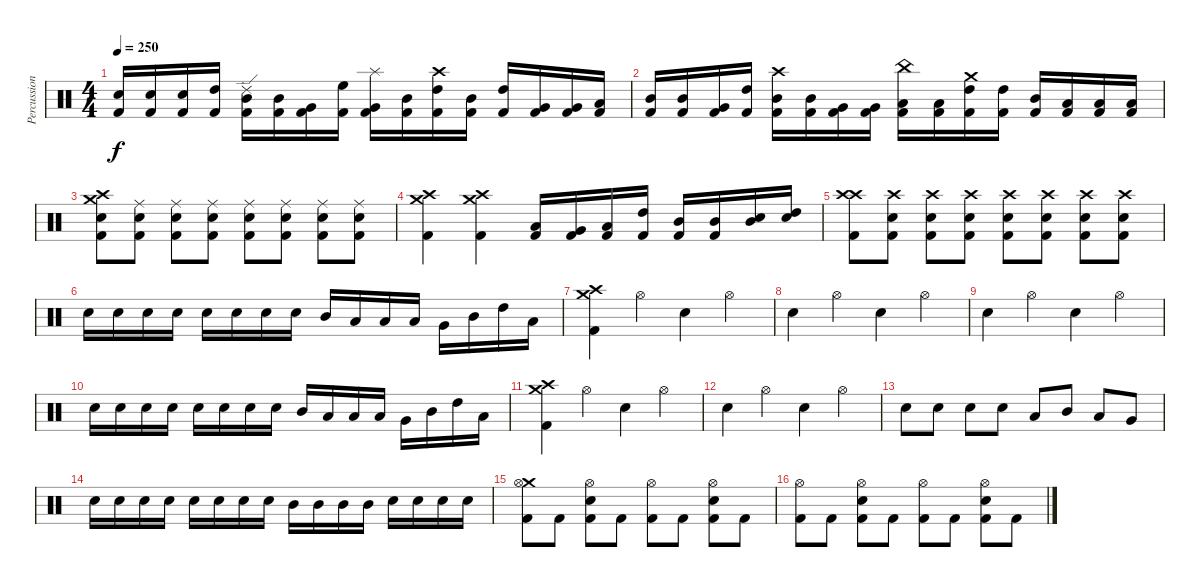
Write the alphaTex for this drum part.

\track ("Percussion" "Percussion") {instrument percussion}
\staff {score}
\articulation defaults
\ts (4 4)
\tempo 250
\clef neutral
\ks c
("Snare (hit) 2" "Kick (hit) 2").16{dy f} ("Snare (hit) 2" "Kick (hit) 2").16 ("Snare (hit) 2" "Kick (hit) 2").16 ("High Tom (hit)" "Kick (hit) 2").16 ("Ride (edge) 2" "Mid Tom (hit)" "Kick (hit) 2").16 ("Mid Tom (hit)" "Kick (hit) 2").16 ("Very Low Tom (hit)" "Kick (hit) 2").16 ("High Floor Tom (hit)" "Kick (hit) 2").16 ("Splash (hit)" "Very Low Tom (hit)" "Kick (hit) 2").16 ("Mid Tom (hit)" "Kick (hit) 2").16 ("Crash high (hit)" "High Tom (hit)" "Kick (hit) 2").16 ("Mid Tom (hit)" "Kick (hit) 2").16 ("High Tom (hit)" "Kick (hit) 2").16 ("Very Low Tom (hit)" "Kick (hit) 2").16 ("Very Low Tom (hit)" "Kick (hit) 2").16 ("Low Tom (hit)" "Kick (hit) 2").16 |
("Mid Tom (hit)" "Kick (hit) 2").16 ("Mid Tom (hit)" "Kick (hit) 2").16 ("Very Low Tom (hit)" "Kick (hit) 2").16 ("High Tom (hit)" "Kick (hit) 2").16 ("Crash high (hit)" "Mid Tom (hit)" "Kick (hit) 2").16 ("Mid Tom (hit)" "Kick (hit) 2").16 ("Very Low Tom (hit)" "Kick (hit) 2").16 ("Very Low Tom (hit)" "Kick (hit) 2").16 ("China (hit)" "Low Tom (hit)" "Kick (hit) 2").16 ("Low Tom (hit)" "Kick (hit) 2").16 ("Crash medium (hit)" "High Tom (hit)" "Kick (hit) 2").16 ("High Tom (hit)" "Kick (hit) 2").16 ("Mid Tom (hit)" "Kick (hit) 2").16 ("Low Tom (hit)" "Kick (hit) 2").16 ("Low Floor Tom (hit)" "Kick (hit) 2").16 ("Low Floor Tom (hit)" "Kick (hit) 2").16 |
("Crash high (hit)" "Crash medium (hit)" "Snare (hit) 2" "Kick (hit) 2").8 ("Ride (middle)" "Snare (hit) 2" "Kick (hit) 2").8 ("Ride (middle)" "Snare (hit) 2" "Kick (hit) 2").8 ("Ride (middle)" "Snare (hit) 2" "Kick (hit) 2").8 ("Ride (middle)" "Snare (hit) 2" "Kick (hit) 2").8 ("Ride (middle)" "Snare (hit) 2" "Kick (hit) 2").8 ("Ride (middle)" "Snare (hit) 2" "Kick (hit) 2").8 ("Ride (middle)" "Snare (hit) 2" "Kick (hit) 2").8 |
("Crash high (hit)" "Crash medium (hit)" "Kick (hit) 2").4 ("Crash high (hit)" "Crash medium (hit)" "Kick (hit) 2").4 ("Low Floor Tom (hit)" "Kick (hit) 2").16 ("Very Low Tom (hit)" "Kick (hit) 2").16 ("Low Tom (hit)" "Kick (hit) 2").16 ("High Tom (hit)" "Kick (hit) 2").16 ("Mid Tom (hit)" "Kick (hit) 2").16 ("Mid Tom (hit)" "Kick (hit) 2").16 ("Mid Tom (hit)" "Snare (hit) 2").16 ("High Tom (hit)" "Snare (hit) 2").16 |
("Crash high (hit)" "Crash high (hit)" "Kick (hit) 2").8 ("Crash high (hit)" "Snare (hit) 2" "Kick (hit) 2").8 ("Crash high (hit)" "Snare (hit) 2" "Kick (hit) 2").8 ("Crash high (hit)" "Snare (hit) 2" "Kick (hit) 2").8 ("Crash high (hit)" "Snare (hit) 2" "Kick (hit) 2").8 ("Crash high (hit)" "Snare (hit) 2" "Kick (hit) 2").8 ("Crash high (hit)" "Snare (hit) 2" "Kick (hit) 2").8 ("Crash high (hit)" "Snare (hit) 2" "Kick (hit) 2").8 |
"Snare (hit) 2".16 "Snare (hit) 2".16 "Snare (hit) 2".16 "Snare (hit) 2".16 "Snare (hit) 2".16 "Snare (hit) 2".16 "Snare (hit) 2".16 "Snare (hit) 2".16 "Mid Tom (hit)".16 "Low Tom (hit)".16 "Low Tom (hit)".16 "Low Floor Tom (hit)".16 "Very Low Tom (hit)".16 "Mid Tom (hit)".16 "High Tom (hit)".16 "Low Tom (hit)".16 |
("Crash medium (hit)" "Crash high (hit)" "Kick (hit) 2").4 "Hi-Hat (open)".4 "Snare (hit)".4 "Hi-Hat (open)".4 |
"Snare (hit)".4 "Hi-Hat (open)".4 "Snare (hit)".4 "Hi-Hat (open)".4 |
"Snare (hit)".4 "Hi-Hat (open)".4 "Snare (hit)".4 "Hi-Hat (open)".4 |
"Snare (hit) 2".16 "Snare (hit) 2".16 "Snare (hit) 2".16 "Snare (hit) 2".16 "Snare (hit) 2".16 "Snare (hit) 2".16 "Snare (hit) 2".16 "Snare (hit) 2".16 "Mid Tom (hit)".16 "Low Tom (hit)".16 "Low Tom (hit)".16 "Low Floor Tom (hit)".16 "Very Low Tom (hit)".16 "Mid Tom (hit)".16 "High Tom (hit)".16 "Low Tom (hit)".16 |
("Crash high (hit)" "Crash medium (hit)" "Kick (hit) 2").4 "Hi-Hat (open)".4 "Snare (hit)".4 "Hi-Hat (open)".4 |
"Snare (hit)".4 "Hi-Hat (open)".4 "Snare (hit)".4 "Hi-Hat (open)".4 |
"Snare (hit) 2".8 "Snare (hit) 2".8 "Snare (hit) 2".8 "Snare (hit) 2".8 "Low Floor Tom (hit)".8 "Mid Tom (hit)".8 "Low Tom (hit)".8 "Very Low Tom (hit)".8 |
"Snare (hit) 2".16 "Snare (hit) 2".16 "Snare (hit) 2".16 "Snare (hit) 2".16 "Snare (hit) 2".16 "Snare (hit) 2".16 "Snare (hit) 2".16 "Snare (hit) 2".16 "Mid Tom (hit)".16 "Mid Tom (hit)".16 "Mid Tom (hit)".16 "Mid Tom (hit)".16 "Snare (hit) 2".16 "Snare (hit) 2".16 "Snare (hit) 2".16 "Snare (hit) 2".16 |
("Crash medium (hit)" "Hi-Hat (open)" "Kick (hit) 2").8 "Kick (hit) 2".8 ("Hi-Hat (open)" "Snare (hit) 2" "Kick (hit) 2").8 "Kick (hit) 2".8 ("Hi-Hat (open)" "Kick (hit) 2").8 "Kick (hit) 2".8 ("Hi-Hat (open)" "Snare (hit) 2" "Kick (hit) 2").8 "Kick (hit) 2".8 |
("Hi-Hat (open)" "Kick (hit) 2").8 "Kick (hit) 2".8 ("Hi-Hat (open)" "Snare (hit) 2" "Kick (hit) 2").8 "Kick (hit) 2".8 ("Hi-Hat (open)" "Kick (hit) 2").8 "Kick (hit) 2".8 ("Hi-Hat (open)" "Snare (hit) 2" "Kick (hit) 2").8 "Kick (hit) 2".8
